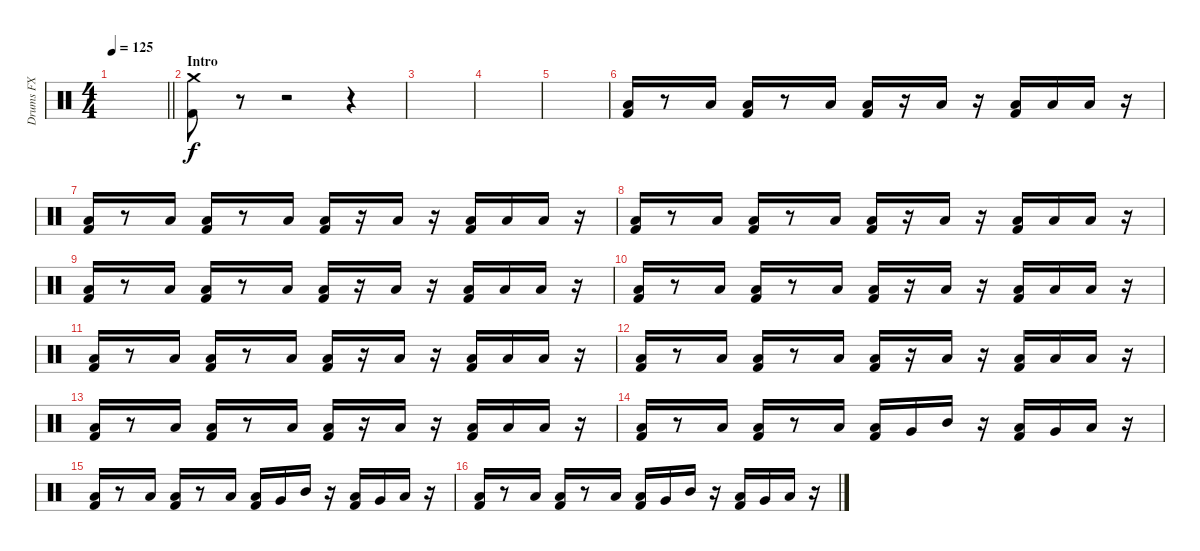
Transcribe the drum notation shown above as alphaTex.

\track ("Drums FX" "Drums FX") {instrument percussion}
\staff {score}
\articulation defaults
\ts (4 4)
\tempo 125
\clef neutral
\barLineRight lightlight
\ks c
|
\section ("" "Intro")
("Crash medium (hit)" "Kick (hit) 2").8 r.8 r.2 r.4 |
|
|
|
("Low Floor Tom (hit)" "Kick (hit) 2").16 r.8 "Low Floor Tom (hit)".16 ("Low Floor Tom (hit)" "Kick (hit) 2").16 r.8 "Low Floor Tom (hit)".16 ("Low Floor Tom (hit)" "Kick (hit) 2").16 r.16 "Low Floor Tom (hit)".16 r.16 ("Low Floor Tom (hit)" "Kick (hit) 2").16 "Low Floor Tom (hit)".16 "Low Floor Tom (hit)".16 r.16 |
("Low Floor Tom (hit)" "Kick (hit) 2").16 r.8 "Low Floor Tom (hit)".16 ("Low Floor Tom (hit)" "Kick (hit) 2").16 r.8 "Low Floor Tom (hit)".16 ("Low Floor Tom (hit)" "Kick (hit) 2").16 r.16 "Low Floor Tom (hit)".16 r.16 ("Low Floor Tom (hit)" "Kick (hit) 2").16 "Low Floor Tom (hit)".16 "Low Floor Tom (hit)".16 r.16 |
("Low Floor Tom (hit)" "Kick (hit) 2").16 r.8 "Low Floor Tom (hit)".16 ("Low Floor Tom (hit)" "Kick (hit) 2").16 r.8 "Low Floor Tom (hit)".16 ("Low Floor Tom (hit)" "Kick (hit) 2").16 r.16 "Low Floor Tom (hit)".16 r.16 ("Low Floor Tom (hit)" "Kick (hit) 2").16 "Low Floor Tom (hit)".16 "Low Floor Tom (hit)".16 r.16 |
("Low Floor Tom (hit)" "Kick (hit) 2").16 r.8 "Low Floor Tom (hit)".16 ("Low Floor Tom (hit)" "Kick (hit) 2").16 r.8 "Low Floor Tom (hit)".16 ("Low Floor Tom (hit)" "Kick (hit) 2").16 r.16 "Low Floor Tom (hit)".16 r.16 ("Low Floor Tom (hit)" "Kick (hit) 2").16 "Low Floor Tom (hit)".16 "Low Floor Tom (hit)".16 r.16 |
("Low Floor Tom (hit)" "Kick (hit) 2").16 r.8 "Low Floor Tom (hit)".16 ("Low Floor Tom (hit)" "Kick (hit) 2").16 r.8 "Low Floor Tom (hit)".16 ("Low Floor Tom (hit)" "Kick (hit) 2").16 r.16 "Low Floor Tom (hit)".16 r.16 ("Low Floor Tom (hit)" "Kick (hit) 2").16 "Low Floor Tom (hit)".16 "Low Floor Tom (hit)".16 r.16 |
("Low Floor Tom (hit)" "Kick (hit) 2").16 r.8 "Low Floor Tom (hit)".16 ("Low Floor Tom (hit)" "Kick (hit) 2").16 r.8 "Low Floor Tom (hit)".16 ("Low Floor Tom (hit)" "Kick (hit) 2").16 r.16 "Low Floor Tom (hit)".16 r.16 ("Low Floor Tom (hit)" "Kick (hit) 2").16 "Low Floor Tom (hit)".16 "Low Floor Tom (hit)".16 r.16 |
("Low Floor Tom (hit)" "Kick (hit) 2").16 r.8 "Low Floor Tom (hit)".16 ("Low Floor Tom (hit)" "Kick (hit) 2").16 r.8 "Low Floor Tom (hit)".16 ("Low Floor Tom (hit)" "Kick (hit) 2").16 r.16 "Low Floor Tom (hit)".16 r.16 ("Low Floor Tom (hit)" "Kick (hit) 2").16 "Low Floor Tom (hit)".16 "Low Floor Tom (hit)".16 r.16 |
("Low Floor Tom (hit)" "Kick (hit) 2").16 r.8 "Low Floor Tom (hit)".16 ("Low Floor Tom (hit)" "Kick (hit) 2").16 r.8 "Low Floor Tom (hit)".16 ("Low Floor Tom (hit)" "Kick (hit) 2").16 r.16 "Low Floor Tom (hit)".16 r.16 ("Low Floor Tom (hit)" "Kick (hit) 2").16 "Low Floor Tom (hit)".16 "Low Floor Tom (hit)".16 r.16 |
("Low Floor Tom (hit)" "Kick (hit) 2").16 r.8 "Low Floor Tom (hit)".16 ("Low Floor Tom (hit)" "Kick (hit) 2").16 r.8 "Low Floor Tom (hit)".16 ("Low Floor Tom (hit)" "Kick (hit) 2").16 "Very Low Tom (hit)".16 "Mid Tom (hit)".16 r.16 ("Low Floor Tom (hit)" "Kick (hit) 2").16 "Very Low Tom (hit)".16 "Low Floor Tom (hit)".16 r.16 |
("Low Floor Tom (hit)" "Kick (hit) 2").16 r.8 "Low Floor Tom (hit)".16 ("Low Floor Tom (hit)" "Kick (hit) 2").16 r.8 "Low Floor Tom (hit)".16 ("Low Floor Tom (hit)" "Kick (hit) 2").16 "Very Low Tom (hit)".16 "Mid Tom (hit)".16 r.16 ("Low Floor Tom (hit)" "Kick (hit) 2").16 "Very Low Tom (hit)".16 "Low Floor Tom (hit)".16 r.16 |
("Low Floor Tom (hit)" "Kick (hit) 2").16 r.8 "Low Floor Tom (hit)".16 ("Low Floor Tom (hit)" "Kick (hit) 2").16 r.8 "Low Floor Tom (hit)".16 ("Low Floor Tom (hit)" "Kick (hit) 2").16 "Very Low Tom (hit)".16 "Mid Tom (hit)".16 r.16 ("Low Floor Tom (hit)" "Kick (hit) 2").16 "Very Low Tom (hit)".16 "Low Floor Tom (hit)".16 r.16
